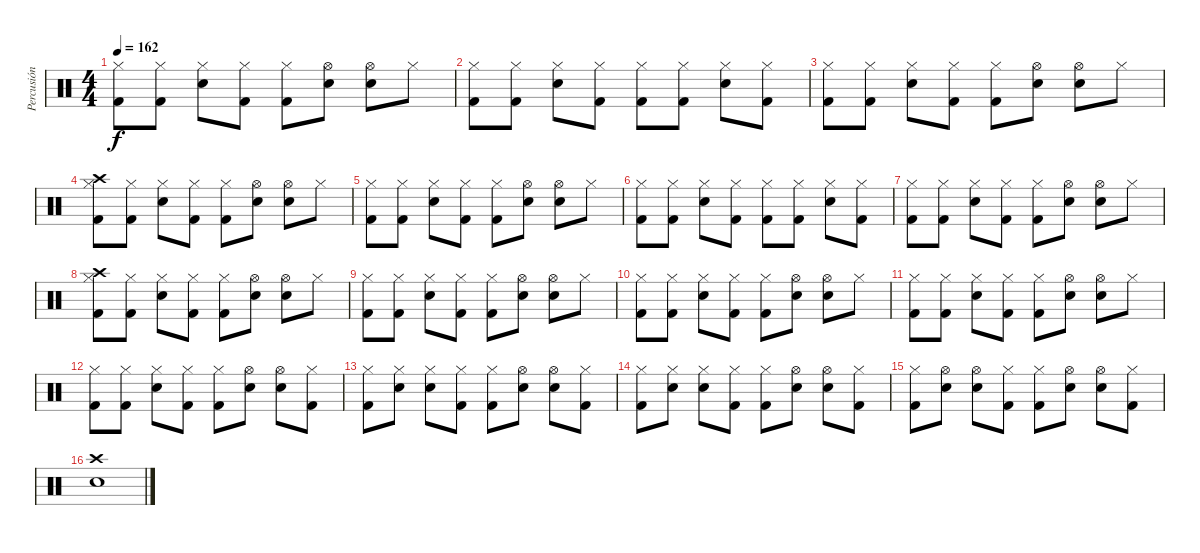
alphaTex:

\track ("Percusión" "Percusión") {instrument percussion}
\staff {score}
\articulation defaults
\ts (4 4)
\tempo 162
\clef neutral
\ks c
("Hi-Hat (closed)" "Kick (hit) 2").8{dy f} ("Hi-Hat (closed)" "Kick (hit) 2").8 ("Hi-Hat (closed)" "Snare (hit) 2").8 ("Hi-Hat (closed)" "Kick (hit) 2").8 ("Hi-Hat (closed)" "Kick (hit) 2").8 ("Hi-Hat (open)" "Snare (hit) 2").8 ("Hi-Hat (open)" "Snare (hit) 2").8 "Hi-Hat (closed)".8 |
("Hi-Hat (closed)" "Kick (hit) 2").8 ("Hi-Hat (closed)" "Kick (hit) 2").8 ("Hi-Hat (closed)" "Snare (hit) 2").8 ("Hi-Hat (closed)" "Kick (hit) 2").8 ("Hi-Hat (closed)" "Kick (hit) 2").8 ("Hi-Hat (closed)" "Kick (hit) 2").8 ("Hi-Hat (closed)" "Snare (hit) 2").8 ("Hi-Hat (closed)" "Kick (hit) 2").8 |
("Hi-Hat (closed)" "Kick (hit) 2").8 ("Hi-Hat (closed)" "Kick (hit) 2").8 ("Hi-Hat (closed)" "Snare (hit) 2").8 ("Hi-Hat (closed)" "Kick (hit) 2").8 ("Hi-Hat (closed)" "Kick (hit) 2").8 ("Hi-Hat (open)" "Snare (hit) 2").8 ("Hi-Hat (open)" "Snare (hit) 2").8 "Hi-Hat (closed)".8 |
("Crash high (hit)" "Hi-Hat (closed)" "Kick (hit) 2").8 ("Hi-Hat (closed)" "Kick (hit) 2").8 ("Hi-Hat (closed)" "Snare (hit) 2").8 ("Hi-Hat (closed)" "Kick (hit) 2").8 ("Hi-Hat (closed)" "Kick (hit) 2").8 ("Hi-Hat (open)" "Snare (hit) 2").8 ("Hi-Hat (open)" "Snare (hit) 2").8 "Hi-Hat (closed)".8 |
("Hi-Hat (closed)" "Kick (hit) 2").8 ("Hi-Hat (closed)" "Kick (hit) 2").8 ("Hi-Hat (closed)" "Snare (hit) 2").8 ("Hi-Hat (closed)" "Kick (hit) 2").8 ("Hi-Hat (closed)" "Kick (hit) 2").8 ("Hi-Hat (open)" "Snare (hit) 2").8 ("Hi-Hat (open)" "Snare (hit) 2").8 "Hi-Hat (closed)".8 |
("Hi-Hat (closed)" "Kick (hit) 2").8 ("Hi-Hat (closed)" "Kick (hit) 2").8 ("Hi-Hat (closed)" "Snare (hit) 2").8 ("Hi-Hat (closed)" "Kick (hit) 2").8 ("Hi-Hat (closed)" "Kick (hit) 2").8 ("Hi-Hat (closed)" "Kick (hit) 2").8 ("Hi-Hat (closed)" "Snare (hit) 2").8 ("Hi-Hat (closed)" "Kick (hit) 2").8 |
("Hi-Hat (closed)" "Kick (hit) 2").8 ("Hi-Hat (closed)" "Kick (hit) 2").8 ("Hi-Hat (closed)" "Snare (hit) 2").8 ("Hi-Hat (closed)" "Kick (hit) 2").8 ("Hi-Hat (closed)" "Kick (hit) 2").8 ("Hi-Hat (open)" "Snare (hit) 2").8 ("Hi-Hat (open)" "Snare (hit) 2").8 "Hi-Hat (closed)".8 |
("Crash high (hit)" "Hi-Hat (closed)" "Kick (hit) 2").8 ("Hi-Hat (closed)" "Kick (hit) 2").8 ("Hi-Hat (closed)" "Snare (hit) 2").8 ("Hi-Hat (closed)" "Kick (hit) 2").8 ("Hi-Hat (closed)" "Kick (hit) 2").8 ("Hi-Hat (open)" "Snare (hit) 2").8 ("Hi-Hat (open)" "Snare (hit) 2").8 "Hi-Hat (closed)".8 |
("Hi-Hat (closed)" "Kick (hit) 2").8 ("Hi-Hat (closed)" "Kick (hit) 2").8 ("Hi-Hat (closed)" "Snare (hit) 2").8 ("Hi-Hat (closed)" "Kick (hit) 2").8 ("Hi-Hat (closed)" "Kick (hit) 2").8 ("Hi-Hat (open)" "Snare (hit) 2").8 ("Hi-Hat (open)" "Snare (hit) 2").8 "Hi-Hat (closed)".8 |
("Hi-Hat (closed)" "Kick (hit) 2").8 ("Hi-Hat (closed)" "Kick (hit) 2").8 ("Hi-Hat (closed)" "Snare (hit) 2").8 ("Hi-Hat (closed)" "Kick (hit) 2").8 ("Hi-Hat (closed)" "Kick (hit) 2").8 ("Hi-Hat (open)" "Snare (hit) 2").8 ("Hi-Hat (open)" "Snare (hit) 2").8 "Hi-Hat (closed)".8 |
("Hi-Hat (closed)" "Kick (hit) 2").8 ("Hi-Hat (closed)" "Kick (hit) 2").8 ("Hi-Hat (closed)" "Snare (hit) 2").8 ("Hi-Hat (closed)" "Kick (hit) 2").8 ("Hi-Hat (closed)" "Kick (hit) 2").8 ("Hi-Hat (open)" "Snare (hit) 2").8 ("Hi-Hat (open)" "Snare (hit) 2").8 "Hi-Hat (closed)".8 |
("Hi-Hat (closed)" "Kick (hit) 2").8 ("Hi-Hat (closed)" "Kick (hit) 2").8 ("Hi-Hat (closed)" "Snare (hit) 2").8 ("Hi-Hat (closed)" "Kick (hit) 2").8 ("Hi-Hat (closed)" "Kick (hit) 2").8 ("Hi-Hat (open)" "Snare (hit) 2").8 ("Hi-Hat (open)" "Snare (hit) 2").8 ("Hi-Hat (closed)" "Kick (hit) 2").8 |
("Hi-Hat (closed)" "Kick (hit) 2").8 ("Hi-Hat (closed)" "Snare (hit) 2").8 ("Hi-Hat (closed)" "Snare (hit) 2").8 ("Hi-Hat (closed)" "Kick (hit) 2").8 ("Hi-Hat (closed)" "Kick (hit) 2").8 ("Hi-Hat (open)" "Snare (hit) 2").8 ("Hi-Hat (open)" "Snare (hit) 2").8 ("Hi-Hat (closed)" "Kick (hit) 2").8 |
("Hi-Hat (closed)" "Kick (hit) 2").8 ("Hi-Hat (closed)" "Snare (hit) 2").8 ("Hi-Hat (closed)" "Snare (hit) 2").8 ("Hi-Hat (closed)" "Kick (hit) 2").8 ("Hi-Hat (closed)" "Kick (hit) 2").8 ("Hi-Hat (open)" "Snare (hit) 2").8 ("Hi-Hat (open)" "Snare (hit) 2").8 ("Hi-Hat (closed)" "Kick (hit) 2").8 |
("Hi-Hat (closed)" "Kick (hit) 2").8 ("Hi-Hat (open)" "Snare (hit) 2").8 ("Hi-Hat (open)" "Snare (hit) 2").8 ("Hi-Hat (closed)" "Kick (hit) 2").8 ("Hi-Hat (closed)" "Kick (hit) 2").8 ("Hi-Hat (open)" "Snare (hit) 2").8 ("Hi-Hat (open)" "Snare (hit) 2").8 ("Hi-Hat (closed)" "Kick (hit) 2").8 |
("Crash high (hit)" "Snare (hit) 2").1
